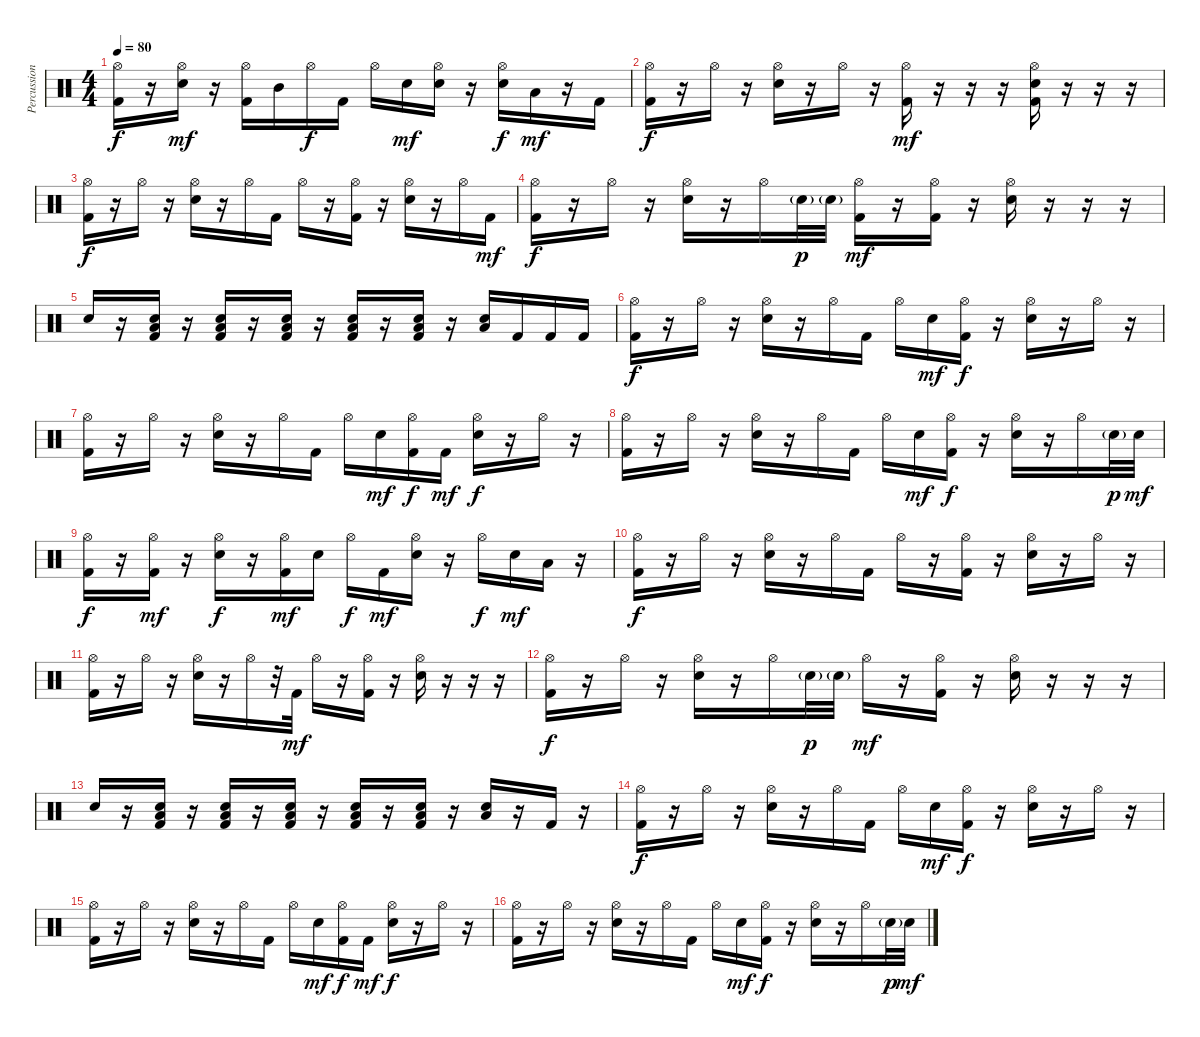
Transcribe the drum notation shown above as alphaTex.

\track ("Percussion" "Percussion") {instrument percussion}
\staff {score}
\articulation defaults
\ts (4 4)
\tempo 80
\clef neutral
\ks c
("Hi-Hat (open)" "Kick (hit) 2").16{dy f} r.16 ("Hi-Hat (open)" "Snare (hit) 2").16{dy mf} r.16 ("Hi-Hat (open)" "Kick (hit) 2").16 "Mid Tom (hit)".16 "Hi-Hat (open)".16{dy f} "Kick (hit) 2".16 "Hi-Hat (open)".16 "Snare (hit) 2".16{dy mf} ("Hi-Hat (open)" "Snare (hit) 2").16 r.16 ("Hi-Hat (open)" "Snare (hit) 2").16{dy f} "Low Tom (hit)".16{dy mf} r.16 "Kick (hit) 2".16 |
("Hi-Hat (open)" "Kick (hit) 2").16{dy f} r.16 "Hi-Hat (open)".16 r.16 ("Hi-Hat (open)" "Snare (hit) 2").16 r.16 "Hi-Hat (open)".16 r.16 ("Hi-Hat (open)" "Kick (hit) 2").16{dy mf} r.16 r.16 r.16 ("Hi-Hat (open)" "Snare (hit) 2" "Kick (hit) 2").16 r.16 r.16 r.16 |
("Hi-Hat (open)" "Kick (hit) 2").16{dy f} r.16 "Hi-Hat (open)".16 r.16 ("Hi-Hat (open)" "Snare (hit) 2").16 r.16 "Hi-Hat (open)".16 "Kick (hit) 2".16 "Hi-Hat (open)".16 r.16 ("Hi-Hat (open)" "Kick (hit) 2").16 r.16 ("Hi-Hat (open)" "Snare (hit) 2").16 r.16 "Hi-Hat (open)".16 "Kick (hit) 2".16{dy mf} |
("Hi-Hat (open)" "Kick (hit) 2").16{dy f} r.16 "Hi-Hat (open)".16 r.16 ("Hi-Hat (open)" "Snare (hit) 2").16 r.16 "Hi-Hat (open)".16 "Snare (hit) 2"{g}.32{dy p} "Snare (hit) 2"{g}.32 ("Hi-Hat (open)" "Kick (hit) 2").16{dy mf} r.16 ("Hi-Hat (open)" "Kick (hit) 2").16 r.16 ("Hi-Hat (open)" "Snare (hit) 2").16 r.16 r.16 r.16 |
"Snare (hit) 2".16 r.16 ("Snare (hit) 2" "Low Tom (hit)" "Kick (hit) 2").16 r.16 ("Snare (hit) 2" "Low Tom (hit)" "Kick (hit) 2").16 r.16 ("Snare (hit) 2" "Low Tom (hit)" "Kick (hit) 2").16 r.16 ("Snare (hit) 2" "Low Tom (hit)" "Kick (hit) 2").16 r.16 ("Snare (hit) 2" "Low Tom (hit)" "Kick (hit) 2").16 r.16 ("Snare (hit) 2" "Low Tom (hit)").16 "Kick (hit) 2".16 "Kick (hit) 2".16 "Kick (hit) 2".16 |
("Hi-Hat (open)" "Kick (hit) 2").16{dy f} r.16 "Hi-Hat (open)".16 r.16 ("Hi-Hat (open)" "Snare (hit) 2").16 r.16 "Hi-Hat (open)".16 "Kick (hit) 2".16 "Hi-Hat (open)".16 "Snare (hit) 2".16{dy mf} ("Hi-Hat (open)" "Kick (hit) 2").16{dy f} r.16 ("Hi-Hat (open)" "Snare (hit) 2").16 r.16 "Hi-Hat (open)".16 r.16 |
("Hi-Hat (open)" "Kick (hit) 2").16 r.16 "Hi-Hat (open)".16 r.16 ("Hi-Hat (open)" "Snare (hit) 2").16 r.16 "Hi-Hat (open)".16 "Kick (hit) 2".16 "Hi-Hat (open)".16 "Snare (hit) 2".16{dy mf} ("Hi-Hat (open)" "Kick (hit) 2").16{dy f} "Kick (hit) 2".16{dy mf} ("Hi-Hat (open)" "Snare (hit) 2").16{dy f} r.16 "Hi-Hat (open)".16 r.16 |
("Hi-Hat (open)" "Kick (hit) 2").16 r.16 "Hi-Hat (open)".16 r.16 ("Hi-Hat (open)" "Snare (hit) 2").16 r.16 "Hi-Hat (open)".16 "Kick (hit) 2".16 "Hi-Hat (open)".16 "Snare (hit) 2".16{dy mf} ("Hi-Hat (open)" "Kick (hit) 2").16{dy f} r.16 ("Hi-Hat (open)" "Snare (hit) 2").16 r.16 "Hi-Hat (open)".16 "Snare (hit) 2"{g}.32{dy p} "Snare (hit) 2".32{dy mf} |
("Hi-Hat (open)" "Kick (hit) 2").16{dy f} r.16 ("Hi-Hat (open)" "Kick (hit) 2").16{dy mf} r.16 ("Hi-Hat (open)" "Snare (hit) 2").16{dy f} r.16 ("Hi-Hat (open)" "Kick (hit) 2").16{dy mf} "Snare (hit) 2".16 "Hi-Hat (open)".16{dy f} "Kick (hit) 2".16{dy mf} ("Hi-Hat (open)" "Snare (hit) 2").16 r.16 "Hi-Hat (open)".16{dy f} "Snare (hit) 2".16{dy mf} "Low Tom (hit)".16 r.16 |
("Hi-Hat (open)" "Kick (hit) 2").16{dy f} r.16 "Hi-Hat (open)".16 r.16 ("Hi-Hat (open)" "Snare (hit) 2").16 r.16 "Hi-Hat (open)".16 "Kick (hit) 2".16 "Hi-Hat (open)".16 r.16 ("Hi-Hat (open)" "Kick (hit) 2").16 r.16 ("Hi-Hat (open)" "Snare (hit) 2").16 r.16 "Hi-Hat (open)".16 r.16 |
("Hi-Hat (open)" "Kick (hit) 2").16 r.16 "Hi-Hat (open)".16 r.16 ("Hi-Hat (open)" "Snare (hit) 2").16 r.16 "Hi-Hat (open)".16 r.32 "Kick (hit) 2".32{dy mf} "Hi-Hat (open)".16 r.16 ("Hi-Hat (open)" "Kick (hit) 2").16 r.16 ("Hi-Hat (open)" "Snare (hit) 2").16 r.16 r.16 r.16 |
("Hi-Hat (open)" "Kick (hit) 2").16{dy f} r.16 "Hi-Hat (open)".16 r.16 ("Hi-Hat (open)" "Snare (hit) 2").16 r.16 "Hi-Hat (open)".16 "Snare (hit) 2"{g}.32{dy p} "Snare (hit) 2"{g}.32 "Hi-Hat (open)".16{dy mf} r.16 ("Hi-Hat (open)" "Kick (hit) 2").16 r.16 ("Hi-Hat (open)" "Snare (hit) 2").16 r.16 r.16 r.16 |
"Snare (hit) 2".16 r.16 ("Snare (hit) 2" "Low Tom (hit)" "Kick (hit) 2").16 r.16 ("Snare (hit) 2" "Low Tom (hit)" "Kick (hit) 2").16 r.16 ("Snare (hit) 2" "Low Tom (hit)" "Kick (hit) 2").16 r.16 ("Snare (hit) 2" "Low Tom (hit)" "Kick (hit) 2").16 r.16 ("Snare (hit) 2" "Low Tom (hit)" "Kick (hit) 2").16 r.16 ("Snare (hit) 2" "Low Tom (hit)").16 r.16 "Kick (hit) 2".16 r.16 |
("Hi-Hat (open)" "Kick (hit) 2").16{dy f} r.16 "Hi-Hat (open)".16 r.16 ("Hi-Hat (open)" "Snare (hit) 2").16 r.16 "Hi-Hat (open)".16 "Kick (hit) 2".16 "Hi-Hat (open)".16 "Snare (hit) 2".16{dy mf} ("Hi-Hat (open)" "Kick (hit) 2").16{dy f} r.16 ("Hi-Hat (open)" "Snare (hit) 2").16 r.16 "Hi-Hat (open)".16 r.16 |
("Hi-Hat (open)" "Kick (hit) 2").16 r.16 "Hi-Hat (open)".16 r.16 ("Hi-Hat (open)" "Snare (hit) 2").16 r.16 "Hi-Hat (open)".16 "Kick (hit) 2".16 "Hi-Hat (open)".16 "Snare (hit) 2".16{dy mf} ("Hi-Hat (open)" "Kick (hit) 2").16{dy f} "Kick (hit) 2".16{dy mf} ("Hi-Hat (open)" "Snare (hit) 2").16{dy f} r.16 "Hi-Hat (open)".16 r.16 |
("Hi-Hat (open)" "Kick (hit) 2").16 r.16 "Hi-Hat (open)".16 r.16 ("Hi-Hat (open)" "Snare (hit) 2").16 r.16 "Hi-Hat (open)".16 "Kick (hit) 2".16 "Hi-Hat (open)".16 "Snare (hit) 2".16{dy mf} ("Hi-Hat (open)" "Kick (hit) 2").16{dy f} r.16 ("Hi-Hat (open)" "Snare (hit) 2").16 r.16 "Hi-Hat (open)".16 "Snare (hit) 2"{g}.32{dy p} "Snare (hit) 2".32{dy mf}
